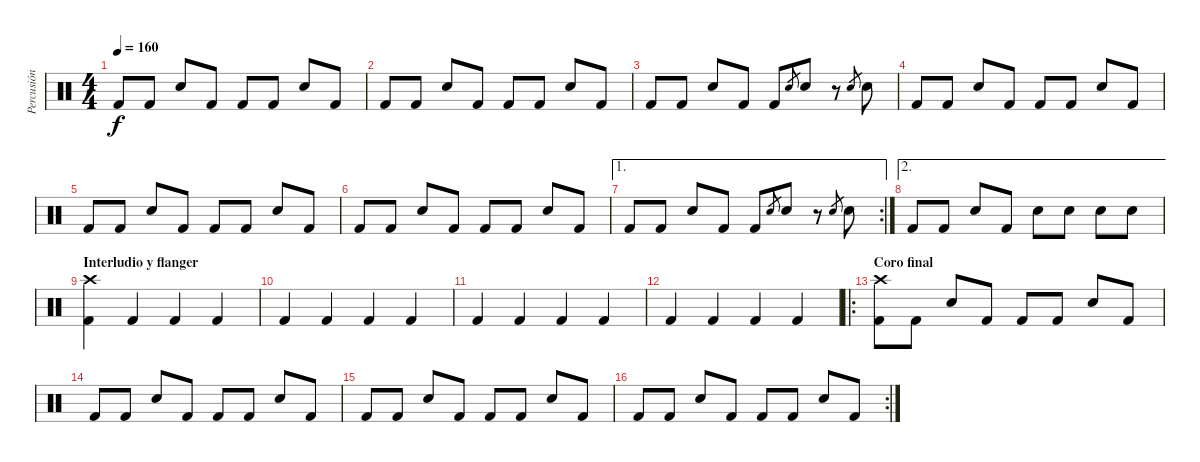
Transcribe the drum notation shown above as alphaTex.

\track ("Percusión" "Percusión") {instrument percussion}
\staff {score}
\articulation defaults
\ts (4 4)
\tempo 160
\clef neutral
\ks c "Kick (hit) 2".8{dy f} "Kick (hit) 2".8 "Electric Snare (hit)".8 "Kick (hit) 2".8 "Kick (hit) 2".8 "Kick (hit) 2".8 "Electric Snare (hit)".8 "Kick (hit) 2".8
|
"Kick (hit) 2".8 "Kick (hit) 2".8 "Electric Snare (hit)".8 "Kick (hit) 2".8 "Kick (hit) 2".8 "Kick (hit) 2".8 "Electric Snare (hit)".8 "Kick (hit) 2".8 |
"Kick (hit) 2".8 "Kick (hit) 2".8 "Electric Snare (hit)".8 "Kick (hit) 2".8 "Kick (hit) 2".8 "Snare (hit) 2".8{gr} "Electric Snare (hit)".8 r.8 "Snare (hit) 2".8{gr} "Electric Snare (hit)".8 |
"Kick (hit) 2".8 "Kick (hit) 2".8 "Electric Snare (hit)".8 "Kick (hit) 2".8 "Kick (hit) 2".8 "Kick (hit) 2".8 "Electric Snare (hit)".8 "Kick (hit) 2".8 |
"Kick (hit) 2".8 "Kick (hit) 2".8 "Electric Snare (hit)".8 "Kick (hit) 2".8 "Kick (hit) 2".8 "Kick (hit) 2".8 "Electric Snare (hit)".8 "Kick (hit) 2".8 |
"Kick (hit) 2".8 "Kick (hit) 2".8 "Electric Snare (hit)".8 "Kick (hit) 2".8 "Kick (hit) 2".8 "Kick (hit) 2".8 "Electric Snare (hit)".8 "Kick (hit) 2".8 |
\ae 1
\rc 2 "Kick (hit) 2".8 "Kick (hit) 2".8 "Electric Snare (hit)".8 "Kick (hit) 2".8 "Kick (hit) 2".8 "Snare (hit) 2".8{gr} "Electric Snare (hit)".8
r.8 "Snare (hit) 2".8{gr} "Electric Snare (hit)".8 |
\ae 2 "Kick (hit) 2".8 "Kick (hit) 2".8 "Electric Snare (hit)".8 "Kick (hit) 2".8 "Electric Snare (hit)".8 "Electric Snare (hit)".8 "Electric Snare (hit)".8 "Electric Snare (hit)".8
|
\section ("" "Interludio y flanger")
("Crash high (hit)" "Kick (hit) 2").4 "Kick (hit) 2".4 "Kick (hit) 2".4 "Kick (hit) 2".4 |
"Kick (hit) 2".4 "Kick (hit) 2".4 "Kick (hit) 2".4 "Kick (hit) 2".4 |
"Kick (hit) 2".4 "Kick (hit) 2".4 "Kick (hit) 2".4 "Kick (hit) 2".4 |
"Kick (hit) 2".4 "Kick (hit) 2".4 "Kick (hit) 2".4 "Kick (hit) 2".4 |
\ro
\section ("" "Coro final")
("Kick (hit) 2" "Crash high (hit)").8 "Kick (hit) 2".8 "Electric Snare (hit)".8 "Kick (hit) 2".8 "Kick (hit) 2".8 "Kick (hit) 2".8 "Electric Snare (hit)".8 "Kick (hit) 2".8 |
"Kick (hit) 2".8 "Kick (hit) 2".8 "Electric Snare (hit)".8 "Kick (hit) 2".8 "Kick (hit) 2".8 "Kick (hit) 2".8 "Electric Snare (hit)".8 "Kick (hit) 2".8 |
"Kick (hit) 2".8 "Kick (hit) 2".8 "Electric Snare (hit)".8 "Kick (hit) 2".8 "Kick (hit) 2".8 "Kick (hit) 2".8 "Electric Snare (hit)".8 "Kick (hit) 2".8 |
\rc 2 "Kick (hit) 2".8 "Kick (hit) 2".8 "Electric Snare (hit)".8 "Kick (hit) 2".8 "Kick (hit) 2".8 "Kick (hit) 2".8 "Electric Snare (hit)".8 "Kick (hit) 2".8
